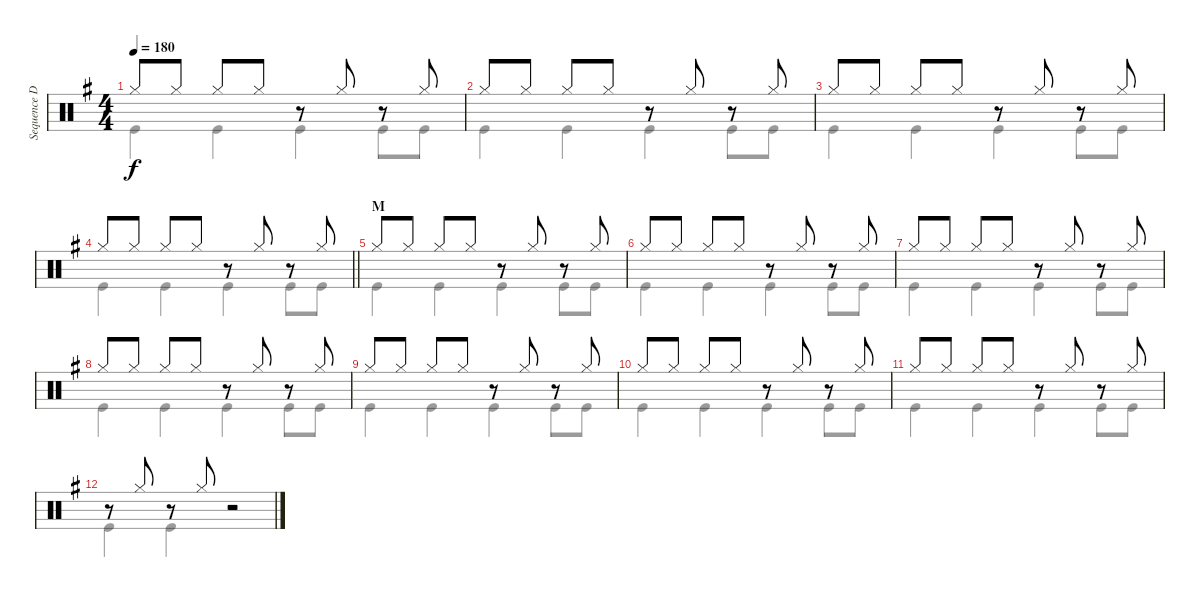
\track ("Sequence Drums" "Sequence D") {instrument percussion}
\staff {score}
\articulation defaults
\voice
\ts (4 4)
\tempo 180
\clef neutral
\ks g "Hi-Hat (closed)".8{dy f} "Hi-Hat (closed)".8 "Hi-Hat (closed)".8 "Hi-Hat (closed)".8
r.8 "Hi-Hat (closed)".8 r.8 "Hi-Hat (closed)".8 |
"Hi-Hat (closed)".8 "Hi-Hat (closed)".8 "Hi-Hat (closed)".8 "Hi-Hat (closed)".8 r.8 "Hi-Hat (closed)".8 r.8 "Hi-Hat (closed)".8 |
"Hi-Hat (closed)".8 "Hi-Hat (closed)".8 "Hi-Hat (closed)".8 "Hi-Hat (closed)".8 r.8 "Hi-Hat (closed)".8 r.8 "Hi-Hat (closed)".8 |
\barLineRight lightlight "Hi-Hat (closed)".8 "Hi-Hat (closed)".8 "Hi-Hat (closed)".8 "Hi-Hat (closed)".8
r.8 "Hi-Hat (closed)".8 r.8 "Hi-Hat (closed)".8 |
\section ("" "M")
"Hi-Hat (closed)".8 "Hi-Hat (closed)".8 "Hi-Hat (closed)".8 "Hi-Hat (closed)".8 r.8 "Hi-Hat (closed)".8 r.8 "Hi-Hat (closed)".8 |
"Hi-Hat (closed)".8 "Hi-Hat (closed)".8 "Hi-Hat (closed)".8 "Hi-Hat (closed)".8 r.8 "Hi-Hat (closed)".8 r.8 "Hi-Hat (closed)".8 |
"Hi-Hat (closed)".8 "Hi-Hat (closed)".8 "Hi-Hat (closed)".8 "Hi-Hat (closed)".8 r.8 "Hi-Hat (closed)".8 r.8 "Hi-Hat (closed)".8 |
"Hi-Hat (closed)".8 "Hi-Hat (closed)".8 "Hi-Hat (closed)".8 "Hi-Hat (closed)".8 r.8 "Hi-Hat (closed)".8 r.8 "Hi-Hat (closed)".8 |
"Hi-Hat (closed)".8 "Hi-Hat (closed)".8 "Hi-Hat (closed)".8 "Hi-Hat (closed)".8 r.8 "Hi-Hat (closed)".8 r.8 "Hi-Hat (closed)".8 |
"Hi-Hat (closed)".8 "Hi-Hat (closed)".8 "Hi-Hat (closed)".8 "Hi-Hat (closed)".8 r.8 "Hi-Hat (closed)".8 r.8 "Hi-Hat (closed)".8 |
"Hi-Hat (closed)".8 "Hi-Hat (closed)".8 "Hi-Hat (closed)".8 "Hi-Hat (closed)".8 r.8 "Hi-Hat (closed)".8 r.8 "Hi-Hat (closed)".8 |
r.8 "Hi-Hat (closed)".8 r.8 "Hi-Hat (closed)".8 r.2
\voice
\clef neutral
\ottava regular
\simile none
\ks g "Kick (hit)".4{dy f} "Kick (hit)".4 "Kick (hit)".4 "Kick (hit)".8 "Kick (hit)".8
|
"Kick (hit)".4 "Kick (hit)".4 "Kick (hit)".4 "Kick (hit)".8 "Kick (hit)".8 |
"Kick (hit)".4 "Kick (hit)".4 "Kick (hit)".4 "Kick (hit)".8 "Kick (hit)".8 |
\barLineRight lightlight "Kick (hit)".4 "Kick (hit)".4 "Kick (hit)".4 "Kick (hit)".8 "Kick (hit)".8
|
"Kick (hit)".4 "Kick (hit)".4 "Kick (hit)".4 "Kick (hit)".8 "Kick (hit)".8 |
"Kick (hit)".4 "Kick (hit)".4 "Kick (hit)".4 "Kick (hit)".8 "Kick (hit)".8 |
"Kick (hit)".4 "Kick (hit)".4 "Kick (hit)".4 "Kick (hit)".8 "Kick (hit)".8 |
"Kick (hit)".4 "Kick (hit)".4 "Kick (hit)".4 "Kick (hit)".8 "Kick (hit)".8 |
"Kick (hit)".4 "Kick (hit)".4 "Kick (hit)".4 "Kick (hit)".8 "Kick (hit)".8 |
"Kick (hit)".4 "Kick (hit)".4 "Kick (hit)".4 "Kick (hit)".8 "Kick (hit)".8 |
"Kick (hit)".4 "Kick (hit)".4 "Kick (hit)".4 "Kick (hit)".8 "Kick (hit)".8 |
"Kick (hit)".4 "Kick (hit)".4 r.2
